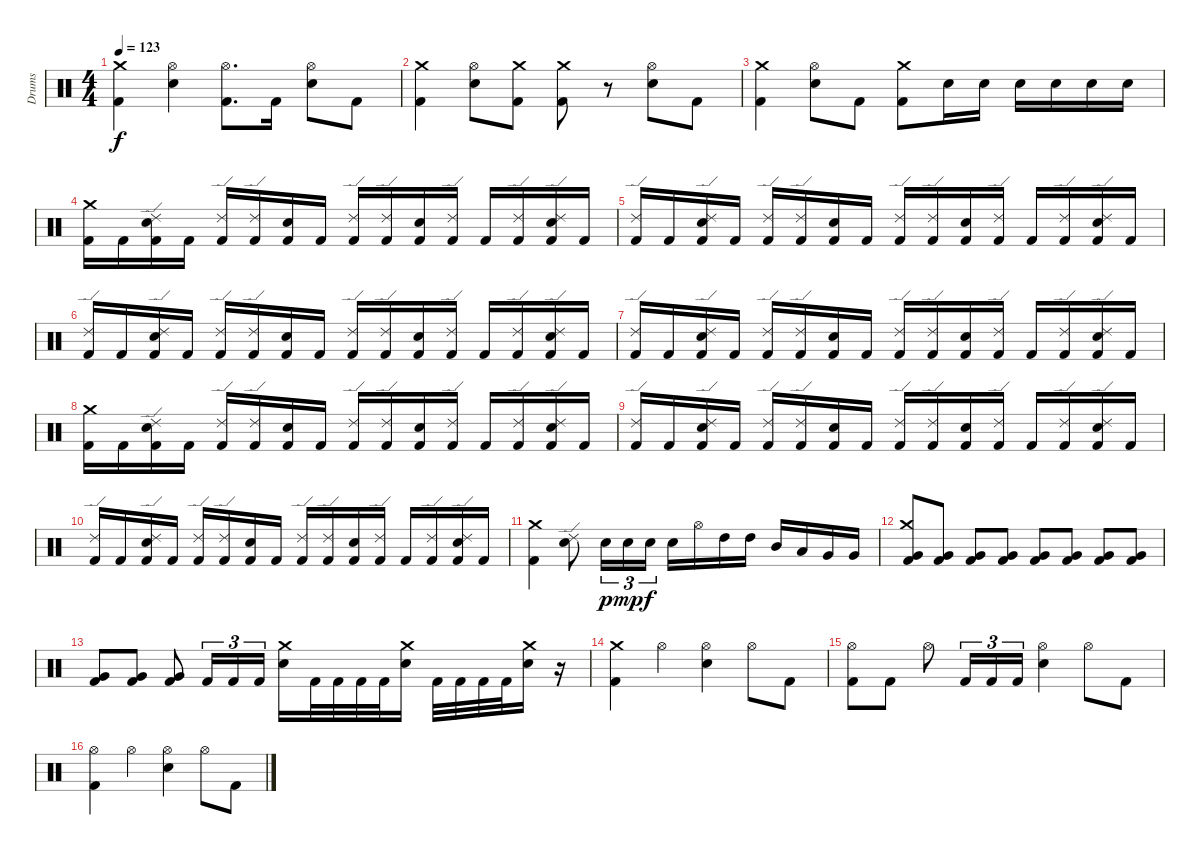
\track ("Drums" "Drums") {instrument percussion}
\staff {score}
\articulation defaults
\ts (4 4)
\tempo 123
\clef neutral
\ks c
("Kick (hit) 2" "Crash medium (hit)").4{dy f} ("Electric Snare (hit)" "Hi-Hat (open)").4 ("Kick (hit) 2" "Hi-Hat (open)").8{d} "Kick (hit) 2".16 ("Hi-Hat (open)" "Electric Snare (hit)").8 "Kick (hit) 2".8 |
("Crash medium (hit)" "Kick (hit) 2").4 ("Hi-Hat (open)" "Electric Snare (hit)").8 ("Crash medium (hit)" "Kick (hit) 2").8 ("Crash medium (hit)" "Kick (hit) 2").8 r.8 ("Hi-Hat (open)" "Electric Snare (hit)").8 "Kick (hit) 2".8 |
("Crash medium (hit)" "Kick (hit) 2").4 ("Hi-Hat (open)" "Electric Snare (hit)").8 "Kick (hit) 2".8 ("Crash medium (hit)" "Kick (hit) 2").8 "Electric Snare (hit)".16 "Electric Snare (hit)".16 "Electric Snare (hit)".16 "Electric Snare (hit)".16 "Electric Snare (hit)".16 "Electric Snare (hit)".16 |
("Crash medium (hit)" "Kick (hit) 2").16 "Kick (hit) 2".16 ("Electric Snare (hit)" "Ride (edge) 2" "Kick (hit) 2").16 "Kick (hit) 2".16 ("Ride (edge) 2" "Kick (hit) 2").16 ("Ride (edge) 2" "Kick (hit) 2").16 ("Electric Snare (hit)" "Kick (hit) 2").16 "Kick (hit) 2".16 ("Ride (edge) 2" "Kick (hit) 2").16 ("Ride (edge) 2" "Kick (hit) 2").16 ("Electric Snare (hit)" "Kick (hit) 2").16 ("Ride (edge) 2" "Kick (hit) 2").16 "Kick (hit) 2".16 ("Ride (edge) 2" "Kick (hit) 2").16 ("Electric Snare (hit)" "Ride (edge) 2" "Kick (hit) 2").16 "Kick (hit) 2".16 |
("Ride (edge) 2" "Kick (hit) 2").16 "Kick (hit) 2".16 ("Electric Snare (hit)" "Ride (edge) 2" "Kick (hit) 2").16 "Kick (hit) 2".16 ("Ride (edge) 2" "Kick (hit) 2").16 ("Ride (edge) 2" "Kick (hit) 2").16 ("Electric Snare (hit)" "Kick (hit) 2").16 "Kick (hit) 2".16 ("Ride (edge) 2" "Kick (hit) 2").16 ("Ride (edge) 2" "Kick (hit) 2").16 ("Electric Snare (hit)" "Kick (hit) 2").16 ("Ride (edge) 2" "Kick (hit) 2").16 "Kick (hit) 2".16 ("Ride (edge) 2" "Kick (hit) 2").16 ("Electric Snare (hit)" "Ride (edge) 2" "Kick (hit) 2").16 "Kick (hit) 2".16 |
("Ride (edge) 2" "Kick (hit) 2").16 "Kick (hit) 2".16 ("Electric Snare (hit)" "Ride (edge) 2" "Kick (hit) 2").16 "Kick (hit) 2".16 ("Ride (edge) 2" "Kick (hit) 2").16 ("Ride (edge) 2" "Kick (hit) 2").16 ("Electric Snare (hit)" "Kick (hit) 2").16 "Kick (hit) 2".16 ("Ride (edge) 2" "Kick (hit) 2").16 ("Ride (edge) 2" "Kick (hit) 2").16 ("Electric Snare (hit)" "Kick (hit) 2").16 ("Ride (edge) 2" "Kick (hit) 2").16 "Kick (hit) 2".16 ("Ride (edge) 2" "Kick (hit) 2").16 ("Electric Snare (hit)" "Ride (edge) 2" "Kick (hit) 2").16 "Kick (hit) 2".16 |
("Ride (edge) 2" "Kick (hit) 2").16 "Kick (hit) 2".16 ("Electric Snare (hit)" "Ride (edge) 2" "Kick (hit) 2").16 "Kick (hit) 2".16 ("Ride (edge) 2" "Kick (hit) 2").16 ("Ride (edge) 2" "Kick (hit) 2").16 ("Electric Snare (hit)" "Kick (hit) 2").16 "Kick (hit) 2".16 ("Ride (edge) 2" "Kick (hit) 2").16 ("Ride (edge) 2" "Kick (hit) 2").16 ("Electric Snare (hit)" "Kick (hit) 2").16 ("Ride (edge) 2" "Kick (hit) 2").16 "Kick (hit) 2".16 ("Ride (edge) 2" "Kick (hit) 2").16 ("Electric Snare (hit)" "Ride (edge) 2" "Kick (hit) 2").16 "Kick (hit) 2".16 |
("Crash medium (hit)" "Kick (hit) 2").16 "Kick (hit) 2".16 ("Electric Snare (hit)" "Ride (edge) 2" "Kick (hit) 2").16 "Kick (hit) 2".16 ("Ride (edge) 2" "Kick (hit) 2").16 ("Ride (edge) 2" "Kick (hit) 2").16 ("Electric Snare (hit)" "Kick (hit) 2").16 "Kick (hit) 2".16 ("Ride (edge) 2" "Kick (hit) 2").16 ("Ride (edge) 2" "Kick (hit) 2").16 ("Electric Snare (hit)" "Kick (hit) 2").16 ("Ride (edge) 2" "Kick (hit) 2").16 "Kick (hit) 2".16 ("Ride (edge) 2" "Kick (hit) 2").16 ("Electric Snare (hit)" "Ride (edge) 2" "Kick (hit) 2").16 "Kick (hit) 2".16 |
("Ride (edge) 2" "Kick (hit) 2").16 "Kick (hit) 2".16 ("Electric Snare (hit)" "Ride (edge) 2" "Kick (hit) 2").16 "Kick (hit) 2".16 ("Ride (edge) 2" "Kick (hit) 2").16 ("Ride (edge) 2" "Kick (hit) 2").16 ("Electric Snare (hit)" "Kick (hit) 2").16 "Kick (hit) 2".16 ("Ride (edge) 2" "Kick (hit) 2").16 ("Ride (edge) 2" "Kick (hit) 2").16 ("Electric Snare (hit)" "Kick (hit) 2").16 ("Ride (edge) 2" "Kick (hit) 2").16 "Kick (hit) 2".16 ("Ride (edge) 2" "Kick (hit) 2").16 ("Electric Snare (hit)" "Ride (edge) 2" "Kick (hit) 2").16 "Kick (hit) 2".16 |
("Ride (edge) 2" "Kick (hit) 2").16 "Kick (hit) 2".16 ("Electric Snare (hit)" "Ride (edge) 2" "Kick (hit) 2").16 "Kick (hit) 2".16 ("Ride (edge) 2" "Kick (hit) 2").16 ("Ride (edge) 2" "Kick (hit) 2").16 ("Electric Snare (hit)" "Kick (hit) 2").16 "Kick (hit) 2".16 ("Ride (edge) 2" "Kick (hit) 2").16 ("Ride (edge) 2" "Kick (hit) 2").16 ("Electric Snare (hit)" "Kick (hit) 2").16 ("Ride (edge) 2" "Kick (hit) 2").16 "Kick (hit) 2".16 ("Ride (edge) 2" "Kick (hit) 2").16 ("Electric Snare (hit)" "Ride (edge) 2" "Kick (hit) 2").16 "Kick (hit) 2".16 |
("Kick (hit) 2" "Crash medium (hit)").4 ("Electric Snare (hit)" "Ride (edge) 2").8 "Electric Snare (hit)".16{tu (3 2) dy p} "Electric Snare (hit)".16{tu (3 2) dy mp} "Electric Snare (hit)".16{tu (3 2) dy f} "Electric Snare (hit)".16 "Hi-Hat (open)".16 "High Tom (hit)".16 "High Tom (hit)".16 "Mid Tom (hit)".16 "Low Tom (hit)".16 "Very Low Tom (hit)".16 "Very Low Tom (hit)".16 |
("Very Low Tom (hit)" "Crash medium (hit)" "Kick (hit) 2").8{volume 5} ("Very Low Tom (hit)" "Kick (hit) 2").8{volume 6} ("Very Low Tom (hit)" "Kick (hit) 2").8{volume 8} ("Very Low Tom (hit)" "Kick (hit) 2").8{volume 9} ("Very Low Tom (hit)" "Kick (hit) 2").8{volume 10} ("Very Low Tom (hit)" "Kick (hit) 2").8{volume 12} ("Very Low Tom (hit)" "Kick (hit) 2").8{volume 13} ("Very Low Tom (hit)" "Kick (hit) 2").8{volume 14} |
("Very Low Tom (hit)" "Kick (hit) 2").8{volume 16} ("Very Low Tom (hit)" "Kick (hit) 2").8 ("Very Low Tom (hit)" "Kick (hit) 2").8 "Kick (hit) 2".16{tu (3 2)} "Kick (hit) 2".16{tu (3 2)} "Kick (hit) 2".16{tu (3 2)} ("Crash medium (hit)" "Electric Snare (hit)").16 "Kick (hit) 2".32 "Kick (hit) 2".32 "Kick (hit) 2".32 "Kick (hit) 2".32 ("Crash medium (hit)" "Electric Snare (hit)").16 "Kick (hit) 2".32 "Kick (hit) 2".32 "Kick (hit) 2".32 "Kick (hit) 2".32 ("Crash medium (hit)" "Electric Snare (hit)").16 r.16 |
("Kick (hit) 2" "Crash medium (hit)").4 "Hi-Hat (open)".4 ("Electric Snare (hit)" "Hi-Hat (open)").4 "Hi-Hat (open)".8 "Kick (hit) 2".8 |
("Kick (hit) 2" "Hi-Hat (open)").8 "Kick (hit) 2".8 "Hi-Hat (open)".8 "Kick (hit) 2".16{tu (3 2)} "Kick (hit) 2".16{tu (3 2)} "Kick (hit) 2".16{tu (3 2)} ("Electric Snare (hit)" "Hi-Hat (open)").4 "Hi-Hat (open)".8 "Kick (hit) 2".8 |
("Hi-Hat (open)" "Kick (hit) 2").4 "Hi-Hat (open)".4 ("Electric Snare (hit)" "Hi-Hat (open)").4 "Hi-Hat (open)".8 "Kick (hit) 2".8
